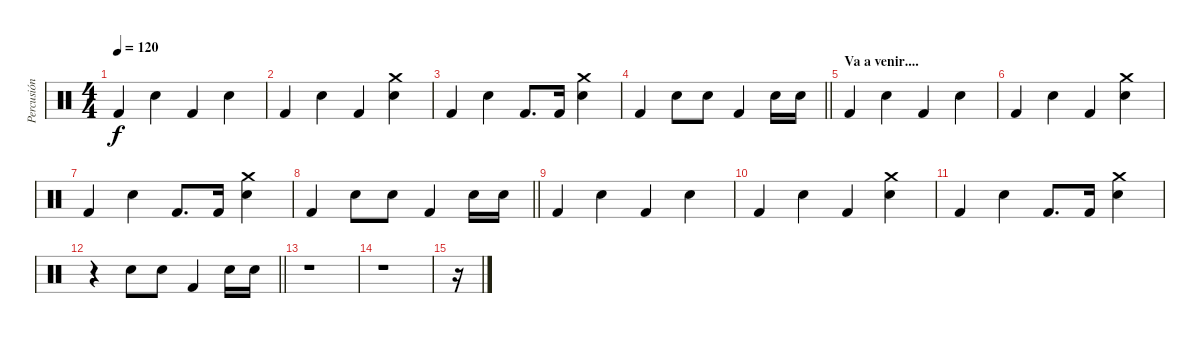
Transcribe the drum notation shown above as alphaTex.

\track ("Percusión" "Percusión") {instrument percussion}
\staff {score}
\articulation defaults
\ts (4 4)
\tempo 120
\clef neutral
\ks c "Kick (hit) 2".4{dy f} "Snare (hit) 2".4 "Kick (hit) 2".4 "Snare (hit) 2".4
|
"Kick (hit) 2".4 "Snare (hit) 2".4 "Kick (hit) 2".4 ("Snare (hit) 2" "Crash medium (hit)").4 |
"Kick (hit) 2".4 "Snare (hit) 2".4 "Kick (hit) 2".8{d} "Kick (hit) 2".16 ("Snare (hit) 2" "Crash medium (hit)").4 |
\barLineRight lightlight "Kick (hit) 2".4 "Snare (hit) 2".8 "Snare (hit) 2".8 "Kick (hit) 2".4 "Snare (hit) 2".16 "Snare (hit) 2".16
|
\section ("" "Va a venir....")
"Kick (hit) 2".4 "Snare (hit) 2".4 "Kick (hit) 2".4 "Snare (hit) 2".4 |
"Kick (hit) 2".4 "Snare (hit) 2".4 "Kick (hit) 2".4 ("Snare (hit) 2" "Crash medium (hit)").4 |
"Kick (hit) 2".4 "Snare (hit) 2".4 "Kick (hit) 2".8{d} "Kick (hit) 2".16 ("Snare (hit) 2" "Crash medium (hit)").4 |
\barLineRight lightlight "Kick (hit) 2".4 "Snare (hit) 2".8 "Snare (hit) 2".8 "Kick (hit) 2".4 "Snare (hit) 2".16 "Snare (hit) 2".16
|
"Kick (hit) 2".4 "Snare (hit) 2".4 "Kick (hit) 2".4 "Snare (hit) 2".4 |
"Kick (hit) 2".4 "Snare (hit) 2".4 "Kick (hit) 2".4 ("Snare (hit) 2" "Crash medium (hit)").4 |
"Kick (hit) 2".4 "Snare (hit) 2".4 "Kick (hit) 2".8{d} "Kick (hit) 2".16 ("Snare (hit) 2" "Crash medium (hit)").4 |
\barLineRight lightlight
r.4 "Snare (hit) 2".8 "Snare (hit) 2".8 "Kick (hit) 2".4 "Snare (hit) 2".16 "Snare (hit) 2".16 |
r.1 |
r.1 |
r.16
